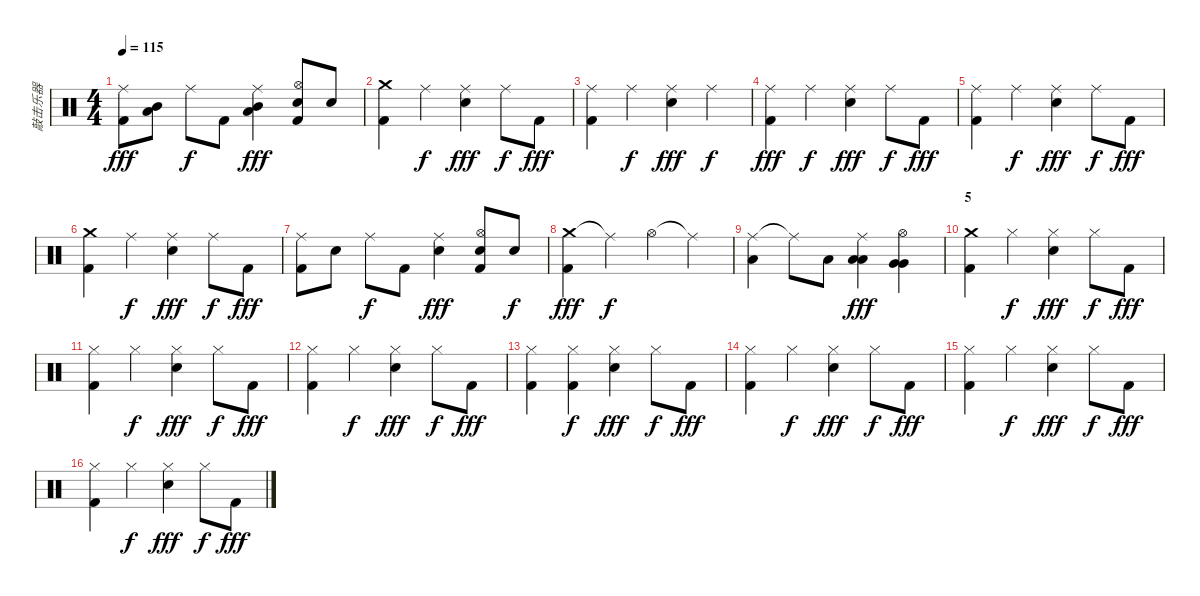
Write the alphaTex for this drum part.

\track ("敲击乐器" "敲击乐器") {instrument percussion}
\staff {score}
\articulation defaults
\ts (4 4)
\tempo 115
\clef neutral
\ks c
("Ride (middle)" "Kick (hit) 2").8{dy fff} ("Mid Tom (hit)" "Low Tom (hit)").8 "Ride (middle)".8{dy f} "Kick (hit) 2".8 ("Ride (middle)" "Mid Tom (hit)" "Low Tom (hit)").4{dy fff} ("Hi-Hat (open)" "Snare (hit) 2" "Kick (hit) 2").8 "Snare (hit) 2".8 |
("Crash medium (hit)" "Kick (hit) 2").4 "Ride (middle)".4{dy f} ("Ride (middle)" "Snare (hit) 2").4{dy fff} "Ride (middle)".8{dy f} "Kick (hit) 2".8{dy fff} |
("Ride (middle)" "Kick (hit) 2").4 "Ride (middle)".4{dy f} ("Ride (middle)" "Snare (hit) 2").4{dy fff} "Ride (middle)".4{dy f} |
("Ride (middle)" "Kick (hit) 2").4{dy fff} "Ride (middle)".4{dy f} ("Ride (middle)" "Snare (hit) 2").4{dy fff} "Ride (middle)".8{dy f} "Kick (hit) 2".8{dy fff} |
("Ride (middle)" "Kick (hit) 2").4 "Ride (middle)".4{dy f} ("Ride (middle)" "Snare (hit) 2").4{dy fff} "Ride (middle)".8{dy f} "Kick (hit) 2".8{dy fff} |
("Crash medium (hit)" "Kick (hit) 2").4 "Ride (middle)".4{dy f} ("Ride (middle)" "Snare (hit) 2").4{dy fff} "Ride (middle)".8{dy f} "Kick (hit) 2".8{dy fff} |
("Ride (middle)" "Kick (hit) 2").8 "Snare (hit) 2".8 "Ride (middle)".8{dy f} "Kick (hit) 2".8 ("Ride (middle)" "Snare (hit) 2").4{dy fff} ("Hi-Hat (open)" "Snare (hit) 2" "Kick (hit) 2").8 "Snare (hit) 2".8{dy f} |
("Crash medium (hit)" "Kick (hit) 2").4{dy fff} "Ride (middle)"{t}.4{dy f} "Hi-Hat (open)".4 "Ride (middle)"{t}.4 |
("Ride (middle)" "Low Tom (hit)").4 "Ride (middle)"{t}.8 "Low Tom (hit)".8 ("Ride (middle)" "Low Tom (hit)" "Low Tom (hit)").4{dy fff} ("Hi-Hat (open)" "Very Low Tom (hit)" "Very Low Tom (hit)").4 |
\section ("" "5")
("Crash medium (hit)" "Kick (hit) 2").4 "Hi-Hat (closed)".4{dy f} ("Hi-Hat (closed)" "Snare (hit) 2").4{dy fff} "Hi-Hat (closed)".8{dy f} "Kick (hit) 2".8{dy fff} |
("Hi-Hat (closed)" "Kick (hit) 2").4 "Hi-Hat (closed)".4{dy f} ("Hi-Hat (closed)" "Snare (hit) 2").4{dy fff} "Hi-Hat (closed)".8{dy f} "Kick (hit) 2".8{dy fff} |
("Hi-Hat (closed)" "Kick (hit) 2").4 "Hi-Hat (closed)".4{dy f} ("Hi-Hat (closed)" "Snare (hit) 2").4{dy fff} "Hi-Hat (closed)".8{dy f} "Kick (hit) 2".8{dy fff} |
("Hi-Hat (closed)" "Kick (hit) 2").4 ("Hi-Hat (closed)" "Kick (hit) 2").4{dy f} ("Hi-Hat (closed)" "Snare (hit) 2").4{dy fff} "Hi-Hat (closed)".8{dy f} "Kick (hit) 2".8{dy fff} |
("Hi-Hat (closed)" "Kick (hit) 2").4 "Hi-Hat (closed)".4{dy f} ("Hi-Hat (closed)" "Snare (hit) 2").4{dy fff} "Hi-Hat (closed)".8{dy f} "Kick (hit) 2".8{dy fff} |
("Hi-Hat (closed)" "Kick (hit) 2").4 "Hi-Hat (closed)".4{dy f} ("Hi-Hat (closed)" "Snare (hit) 2").4{dy fff} "Hi-Hat (closed)".8{dy f} "Kick (hit) 2".8{dy fff} |
("Hi-Hat (closed)" "Kick (hit) 2").4 "Hi-Hat (closed)".4{dy f} ("Hi-Hat (closed)" "Snare (hit) 2").4{dy fff} "Hi-Hat (closed)".8{dy f} "Kick (hit) 2".8{dy fff}
